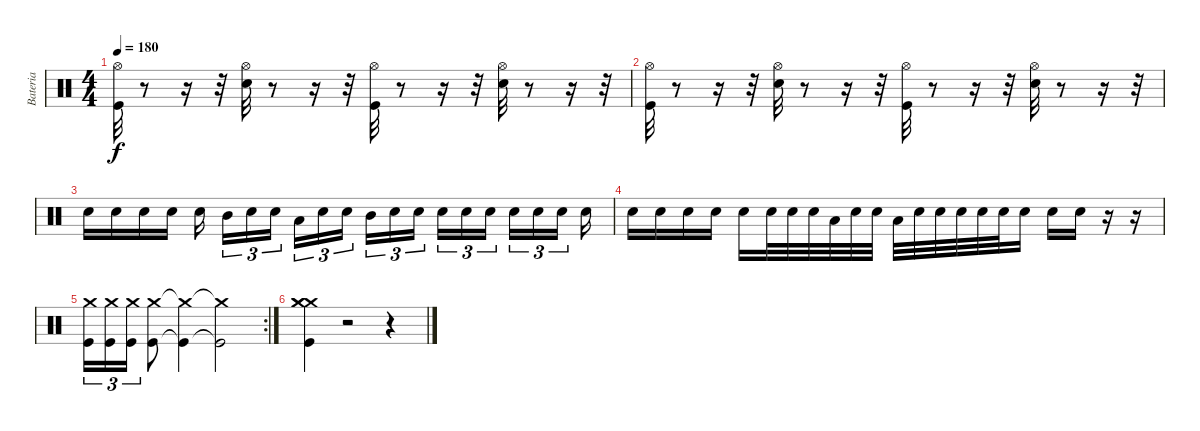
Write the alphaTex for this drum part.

\track ("Bateria" "Bateria") {instrument percussion}
\staff {score}
\articulation defaults
\ts (4 4)
\tempo 180
\clef neutral
\ks c
("Hi-Hat (open)" "Kick (hit)").32{dy f} r.8 r.16 r.32 ("Snare (hit) 2" "Hi-Hat (open)").32 r.8 r.16 r.32 ("Hi-Hat (open)" "Kick (hit)").32 r.8 r.16 r.32 ("Snare (hit) 2" "Hi-Hat (open)").32 r.8 r.16 r.32 |
("Hi-Hat (open)" "Kick (hit)").32 r.8 r.16 r.32 ("Snare (hit) 2" "Hi-Hat (open)").32 r.8 r.16 r.32 ("Hi-Hat (open)" "Kick (hit)").32 r.8 r.16 r.32 ("Snare (hit) 2" "Hi-Hat (open)").32 r.8 r.16 r.32 |
"Snare (hit) 2".16 "Snare (hit) 2".16 "Snare (hit) 2".16 "Snare (hit) 2".16 "Snare (hit) 2".16 "Mid Tom (hit)".16{tu (3 2)} "Snare (hit) 2".16{tu (3 2)} "Snare (hit) 2".16{tu (3 2)} "Low Tom (hit)".16{tu (3 2)} "Snare (hit) 2".16{tu (3 2)} "Snare (hit) 2".16{tu (3 2)} "Mid Tom (hit)".16{tu (3 2)} "Snare (hit) 2".16{tu (3 2)} "Snare (hit) 2".16{tu (3 2)} "Snare (hit) 2".16{tu (3 2)} "Snare (hit) 2".16{tu (3 2)} "Snare (hit) 2".16{tu (3 2)} "Snare (hit) 2".16{tu (3 2)} "Snare (hit) 2".16{tu (3 2)} "Snare (hit) 2".16{tu (3 2)} "Snare (hit) 2".16 |
"Snare (hit) 2".16 "Snare (hit) 2".16 "Snare (hit) 2".16 "Snare (hit) 2".16 "Snare (hit) 2".16 "Snare (hit) 2".32 "Snare (hit) 2".32 "Snare (hit) 2".32 "Low Tom (hit)".32 "Snare (hit) 2".32 "Snare (hit) 2".32 "Low Tom (hit)".32 "Snare (hit) 2".32 "Snare (hit) 2".32 "Snare (hit) 2".32 "Snare (hit) 2".32 "Snare (hit) 2".32 "Snare (hit) 2".16 "Snare (hit) 2".16 "Snare (hit) 2".16 r.16 r.16 |
\rc 2
("Crash medium (hit)" "Kick (hit)").16{tu (3 2)} ("Crash medium (hit)" "Kick (hit)").16{tu (3 2)} ("Crash medium (hit)" "Kick (hit)").16{tu (3 2)} ("Crash medium (hit)" "Kick (hit)").8 ("Crash medium (hit)"{t} "Kick (hit)"{t}).4 ("Crash medium (hit)"{t} "Kick (hit)"{t}).2 |
("Crash medium (hit)" "Crash medium (hit)" "Crash medium (hit)" "Kick (hit)").4 r.2 r.4
